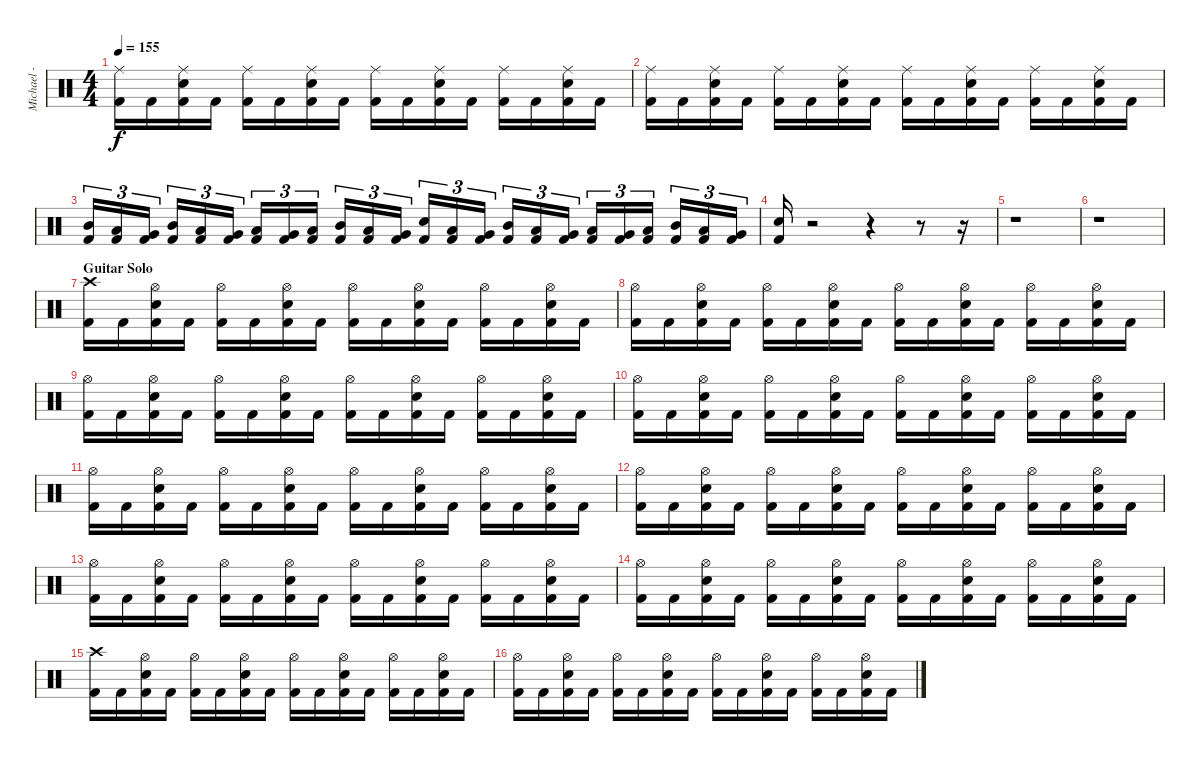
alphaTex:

\track ("Michael - Drums" "Michael - ") {instrument percussion}
\staff {score}
\articulation defaults
\ts (4 4)
\tempo 155
\clef neutral
\ks c
("Ride (middle)" "Kick (hit) 2").16{dy f} "Kick (hit) 2".16 ("Ride (middle)" "Electric Snare (hit)" "Kick (hit) 2").16 "Kick (hit) 2".16 ("Ride (middle)" "Kick (hit) 2").16 "Kick (hit) 2".16 ("Ride (middle)" "Electric Snare (hit)" "Kick (hit) 2").16 "Kick (hit) 2".16 ("Ride (middle)" "Kick (hit) 2").16 "Kick (hit) 2".16 ("Ride (middle)" "Electric Snare (hit)" "Kick (hit) 2").16 "Kick (hit) 2".16 ("Ride (middle)" "Kick (hit) 2").16 "Kick (hit) 2".16 ("Ride (middle)" "Electric Snare (hit)" "Kick (hit) 2").16 "Kick (hit) 2".16 |
("Ride (middle)" "Kick (hit) 2").16 "Kick (hit) 2".16 ("Ride (middle)" "Electric Snare (hit)" "Kick (hit) 2").16 "Kick (hit) 2".16 ("Ride (middle)" "Kick (hit) 2").16 "Kick (hit) 2".16 ("Ride (middle)" "Electric Snare (hit)" "Kick (hit) 2").16 "Kick (hit) 2".16 ("Ride (middle)" "Kick (hit) 2").16 "Kick (hit) 2".16 ("Ride (middle)" "Electric Snare (hit)" "Kick (hit) 2").16 "Kick (hit) 2".16 ("Ride (middle)" "Kick (hit) 2").16 "Kick (hit) 2".16 ("Ride (middle)" "Electric Snare (hit)" "Kick (hit) 2").16 "Kick (hit) 2".16 |
("Mid Tom (hit)" "Kick (hit) 2").16{tu (3 2)} ("Low Tom (hit)" "Kick (hit) 2").16{tu (3 2)} ("Very Low Tom (hit)" "Kick (hit) 2").16{tu (3 2)} ("Mid Tom (hit)" "Kick (hit) 2").16{tu (3 2)} ("Low Tom (hit)" "Kick (hit) 2").16{tu (3 2)} ("Very Low Tom (hit)" "Kick (hit) 2").16{tu (3 2)} ("Low Floor Tom (hit)" "Kick (hit) 2").16{tu (3 2)} ("Very Low Tom (hit)" "Kick (hit) 2").16{tu (3 2)} ("Low Tom (hit)" "Kick (hit) 2").16{tu (3 2)} ("Mid Tom (hit)" "Kick (hit) 2").16{tu (3 2)} ("Low Tom (hit)" "Kick (hit) 2").16{tu (3 2)} ("Very Low Tom (hit)" "Kick (hit) 2").16{tu (3 2)} ("Electric Snare (hit)" "Kick (hit) 2").16{tu (3 2)} ("Low Tom (hit)" "Kick (hit) 2").16{tu (3 2)} ("Very Low Tom (hit)" "Kick (hit) 2").16{tu (3 2)} ("Mid Tom (hit)" "Kick (hit) 2").16{tu (3 2)} ("Low Tom (hit)" "Kick (hit) 2").16{tu (3 2)} ("Very Low Tom (hit)" "Kick (hit) 2").16{tu (3 2)} ("Low Floor Tom (hit)" "Kick (hit) 2").16{tu (3 2)} ("Very Low Tom (hit)" "Kick (hit) 2").16{tu (3 2)} ("Low Tom (hit)" "Kick (hit) 2").16{tu (3 2)} ("Mid Tom (hit)" "Kick (hit) 2").16{tu (3 2)} ("Low Tom (hit)" "Kick (hit) 2").16{tu (3 2)} ("Very Low Tom (hit)" "Kick (hit) 2").16{tu (3 2)} |
("Electric Snare (hit)" "Kick (hit) 2").16 r.2 r.4 r.8 r.16 |
r.1 |
r.1 |
\section ("" "Guitar Solo")
("Crash high (hit)" "Kick (hit) 2").16 "Kick (hit) 2".16 ("Hi-Hat (open)" "Electric Snare (hit)" "Kick (hit) 2").16 "Kick (hit) 2".16 ("Hi-Hat (open)" "Kick (hit) 2").16 "Kick (hit) 2".16 ("Hi-Hat (open)" "Electric Snare (hit)" "Kick (hit) 2").16 "Kick (hit) 2".16 ("Hi-Hat (open)" "Kick (hit) 2").16 "Kick (hit) 2".16 ("Hi-Hat (open)" "Electric Snare (hit)" "Kick (hit) 2").16 "Kick (hit) 2".16 ("Hi-Hat (open)" "Kick (hit) 2").16 "Kick (hit) 2".16 ("Hi-Hat (open)" "Electric Snare (hit)" "Kick (hit) 2").16 "Kick (hit) 2".16 |
("Hi-Hat (open)" "Kick (hit) 2").16 "Kick (hit) 2".16 ("Hi-Hat (open)" "Electric Snare (hit)" "Kick (hit) 2").16 "Kick (hit) 2".16 ("Hi-Hat (open)" "Kick (hit) 2").16 "Kick (hit) 2".16 ("Hi-Hat (open)" "Electric Snare (hit)" "Kick (hit) 2").16 "Kick (hit) 2".16 ("Hi-Hat (open)" "Kick (hit) 2").16 "Kick (hit) 2".16 ("Hi-Hat (open)" "Electric Snare (hit)" "Kick (hit) 2").16 "Kick (hit) 2".16 ("Hi-Hat (open)" "Kick (hit) 2").16 "Kick (hit) 2".16 ("Hi-Hat (open)" "Electric Snare (hit)" "Kick (hit) 2").16 "Kick (hit) 2".16 |
("Hi-Hat (open)" "Kick (hit) 2").16 "Kick (hit) 2".16 ("Hi-Hat (open)" "Electric Snare (hit)" "Kick (hit) 2").16 "Kick (hit) 2".16 ("Hi-Hat (open)" "Kick (hit) 2").16 "Kick (hit) 2".16 ("Hi-Hat (open)" "Electric Snare (hit)" "Kick (hit) 2").16 "Kick (hit) 2".16 ("Hi-Hat (open)" "Kick (hit) 2").16 "Kick (hit) 2".16 ("Hi-Hat (open)" "Electric Snare (hit)" "Kick (hit) 2").16 "Kick (hit) 2".16 ("Hi-Hat (open)" "Kick (hit) 2").16 "Kick (hit) 2".16 ("Hi-Hat (open)" "Electric Snare (hit)" "Kick (hit) 2").16 "Kick (hit) 2".16 |
("Hi-Hat (open)" "Kick (hit) 2").16 "Kick (hit) 2".16 ("Hi-Hat (open)" "Electric Snare (hit)" "Kick (hit) 2").16 "Kick (hit) 2".16 ("Hi-Hat (open)" "Kick (hit) 2").16 "Kick (hit) 2".16 ("Hi-Hat (open)" "Electric Snare (hit)" "Kick (hit) 2").16 "Kick (hit) 2".16 ("Hi-Hat (open)" "Kick (hit) 2").16 "Kick (hit) 2".16 ("Hi-Hat (open)" "Electric Snare (hit)" "Kick (hit) 2").16 "Kick (hit) 2".16 ("Hi-Hat (open)" "Kick (hit) 2").16 "Kick (hit) 2".16 ("Hi-Hat (open)" "Electric Snare (hit)" "Kick (hit) 2").16 "Kick (hit) 2".16 |
("Hi-Hat (open)" "Kick (hit) 2").16 "Kick (hit) 2".16 ("Hi-Hat (open)" "Electric Snare (hit)" "Kick (hit) 2").16 "Kick (hit) 2".16 ("Hi-Hat (open)" "Kick (hit) 2").16 "Kick (hit) 2".16 ("Hi-Hat (open)" "Electric Snare (hit)" "Kick (hit) 2").16 "Kick (hit) 2".16 ("Hi-Hat (open)" "Kick (hit) 2").16 "Kick (hit) 2".16 ("Hi-Hat (open)" "Electric Snare (hit)" "Kick (hit) 2").16 "Kick (hit) 2".16 ("Hi-Hat (open)" "Kick (hit) 2").16 "Kick (hit) 2".16 ("Hi-Hat (open)" "Electric Snare (hit)" "Kick (hit) 2").16 "Kick (hit) 2".16 |
("Hi-Hat (open)" "Kick (hit) 2").16 "Kick (hit) 2".16 ("Hi-Hat (open)" "Electric Snare (hit)" "Kick (hit) 2").16 "Kick (hit) 2".16 ("Hi-Hat (open)" "Kick (hit) 2").16 "Kick (hit) 2".16 ("Hi-Hat (open)" "Electric Snare (hit)" "Kick (hit) 2").16 "Kick (hit) 2".16 ("Hi-Hat (open)" "Kick (hit) 2").16 "Kick (hit) 2".16 ("Hi-Hat (open)" "Electric Snare (hit)" "Kick (hit) 2").16 "Kick (hit) 2".16 ("Hi-Hat (open)" "Kick (hit) 2").16 "Kick (hit) 2".16 ("Hi-Hat (open)" "Electric Snare (hit)" "Kick (hit) 2").16 "Kick (hit) 2".16 |
("Hi-Hat (open)" "Kick (hit) 2").16 "Kick (hit) 2".16 ("Hi-Hat (open)" "Electric Snare (hit)" "Kick (hit) 2").16 "Kick (hit) 2".16 ("Hi-Hat (open)" "Kick (hit) 2").16 "Kick (hit) 2".16 ("Hi-Hat (open)" "Electric Snare (hit)" "Kick (hit) 2").16 "Kick (hit) 2".16 ("Hi-Hat (open)" "Kick (hit) 2").16 "Kick (hit) 2".16 ("Hi-Hat (open)" "Electric Snare (hit)" "Kick (hit) 2").16 "Kick (hit) 2".16 ("Hi-Hat (open)" "Kick (hit) 2").16 "Kick (hit) 2".16 ("Hi-Hat (open)" "Electric Snare (hit)" "Kick (hit) 2").16 "Kick (hit) 2".16 |
("Hi-Hat (open)" "Kick (hit) 2").16 "Kick (hit) 2".16 ("Hi-Hat (open)" "Electric Snare (hit)" "Kick (hit) 2").16 "Kick (hit) 2".16 ("Hi-Hat (open)" "Kick (hit) 2").16 "Kick (hit) 2".16 ("Hi-Hat (open)" "Electric Snare (hit)" "Kick (hit) 2").16 "Kick (hit) 2".16 ("Hi-Hat (open)" "Kick (hit) 2").16 "Kick (hit) 2".16 ("Hi-Hat (open)" "Electric Snare (hit)" "Kick (hit) 2").16 "Kick (hit) 2".16 ("Hi-Hat (open)" "Kick (hit) 2").16 "Kick (hit) 2".16 ("Hi-Hat (open)" "Electric Snare (hit)" "Kick (hit) 2").16 "Kick (hit) 2".16 |
("Crash high (hit)" "Kick (hit) 2").16 "Kick (hit) 2".16 ("Hi-Hat (open)" "Electric Snare (hit)" "Kick (hit) 2").16 "Kick (hit) 2".16 ("Hi-Hat (open)" "Kick (hit) 2").16 "Kick (hit) 2".16 ("Hi-Hat (open)" "Electric Snare (hit)" "Kick (hit) 2").16 "Kick (hit) 2".16 ("Hi-Hat (open)" "Kick (hit) 2").16 "Kick (hit) 2".16 ("Hi-Hat (open)" "Electric Snare (hit)" "Kick (hit) 2").16 "Kick (hit) 2".16 ("Hi-Hat (open)" "Kick (hit) 2").16 "Kick (hit) 2".16 ("Hi-Hat (open)" "Electric Snare (hit)" "Kick (hit) 2").16 "Kick (hit) 2".16 |
("Hi-Hat (open)" "Kick (hit) 2").16 "Kick (hit) 2".16 ("Hi-Hat (open)" "Electric Snare (hit)" "Kick (hit) 2").16 "Kick (hit) 2".16 ("Hi-Hat (open)" "Kick (hit) 2").16 "Kick (hit) 2".16 ("Hi-Hat (open)" "Electric Snare (hit)" "Kick (hit) 2").16 "Kick (hit) 2".16 ("Hi-Hat (open)" "Kick (hit) 2").16 "Kick (hit) 2".16 ("Hi-Hat (open)" "Electric Snare (hit)" "Kick (hit) 2").16 "Kick (hit) 2".16 ("Hi-Hat (open)" "Kick (hit) 2").16 "Kick (hit) 2".16 ("Hi-Hat (open)" "Electric Snare (hit)" "Kick (hit) 2").16 "Kick (hit) 2".16
